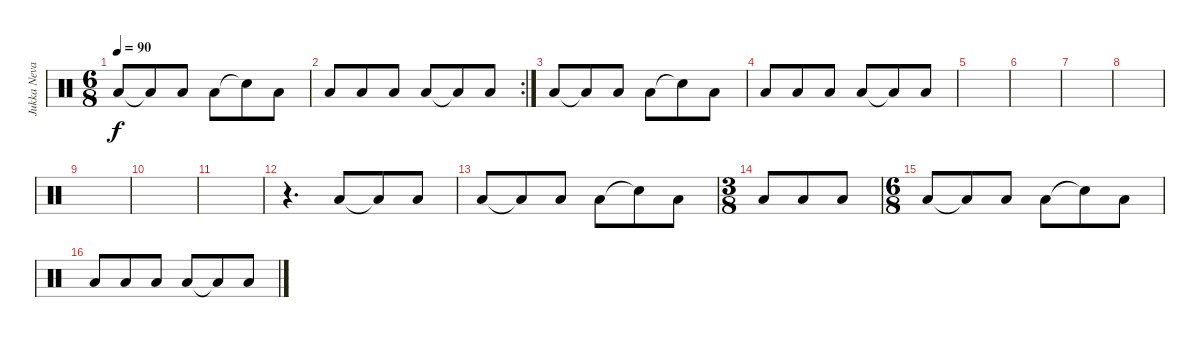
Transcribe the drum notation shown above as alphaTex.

\track ("Jukka Nevalainen" "Jukka Neva") {instrument percussion}
\staff {score}
\articulation defaults
\ts (6 8)
\tempo 90
\clef neutral
\ks c "Low Floor Tom (hit)".8{dy f} "Low Floor Tom (hit)"{t}.8 "Low Floor Tom (hit)".8 "Low Floor Tom (hit)".8 "Snare (hit)"{t}.8 "Low Floor Tom (hit)".8
|
\rc 2 "Low Floor Tom (hit)".8 "Low Floor Tom (hit)".8 "Low Floor Tom (hit)".8 "Low Floor Tom (hit)".8 "Low Floor Tom (hit)"{t}.8 "Low Floor Tom (hit)".8
|
"Low Floor Tom (hit)".8 "Low Floor Tom (hit)"{t}.8 "Low Floor Tom (hit)".8 "Low Floor Tom (hit)".8 "Snare (hit)"{t}.8 "Low Floor Tom (hit)".8 |
"Low Floor Tom (hit)".8 "Low Floor Tom (hit)".8 "Low Floor Tom (hit)".8 "Low Floor Tom (hit)".8 "Low Floor Tom (hit)"{t}.8 "Low Floor Tom (hit)".8 |
|
|
|
|
|
|
|
r.4{d} "Low Floor Tom (hit)".8 "Low Floor Tom (hit)"{t}.8 "Low Floor Tom (hit)".8 |
"Low Floor Tom (hit)".8 "Low Floor Tom (hit)"{t}.8 "Low Floor Tom (hit)".8 "Low Floor Tom (hit)".8 "Snare (hit)"{t}.8 "Low Floor Tom (hit)".8 |
\ts (3 8)
"Low Floor Tom (hit)".8 "Low Floor Tom (hit)".8 "Low Floor Tom (hit)".8 |
\ts (6 8)
"Low Floor Tom (hit)".8 "Low Floor Tom (hit)"{t}.8 "Low Floor Tom (hit)".8 "Low Floor Tom (hit)".8 "Snare (hit)"{t}.8 "Low Floor Tom (hit)".8 |
"Low Floor Tom (hit)".8 "Low Floor Tom (hit)".8 "Low Floor Tom (hit)".8 "Low Floor Tom (hit)".8 "Low Floor Tom (hit)"{t}.8 "Low Floor Tom (hit)".8
